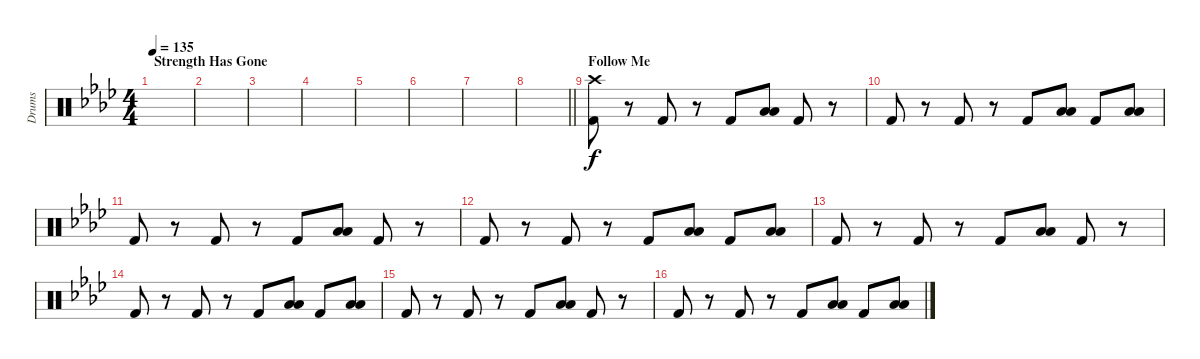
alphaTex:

\track ("Drums" "Drums") {instrument percussion}
\staff {score}
\articulation defaults
\ts (4 4)
\section ("" "Strength Has Gone")
\tempo 135
\clef neutral
\ks ab
|
|
|
|
|
|
|
\barLineRight lightlight
|
\section ("" "Follow Me")
("Kick (hit) 2" "Crash high (hit)").8 r.8 "Kick (hit) 2".8 r.8 "Kick (hit) 2".8 ("Low Tom (hit)" "Low Floor Tom (hit)").8 "Kick (hit) 2".8 r.8 |
"Kick (hit) 2".8 r.8 "Kick (hit) 2".8 r.8 "Kick (hit) 2".8 ("Low Tom (hit)" "Low Floor Tom (hit)").8 "Kick (hit) 2".8 ("Low Tom (hit)" "Low Floor Tom (hit)").8 |
"Kick (hit) 2".8 r.8 "Kick (hit) 2".8 r.8 "Kick (hit) 2".8 ("Low Tom (hit)" "Low Floor Tom (hit)").8 "Kick (hit) 2".8 r.8 |
"Kick (hit) 2".8 r.8 "Kick (hit) 2".8 r.8 "Kick (hit) 2".8 ("Low Tom (hit)" "Low Floor Tom (hit)").8 "Kick (hit) 2".8 ("Low Tom (hit)" "Low Floor Tom (hit)").8 |
"Kick (hit) 2".8 r.8 "Kick (hit) 2".8 r.8 "Kick (hit) 2".8 ("Low Tom (hit)" "Low Floor Tom (hit)").8 "Kick (hit) 2".8 r.8 |
"Kick (hit) 2".8 r.8 "Kick (hit) 2".8 r.8 "Kick (hit) 2".8 ("Low Tom (hit)" "Low Floor Tom (hit)").8 "Kick (hit) 2".8 ("Low Tom (hit)" "Low Floor Tom (hit)").8 |
"Kick (hit) 2".8 r.8 "Kick (hit) 2".8 r.8 "Kick (hit) 2".8 ("Low Tom (hit)" "Low Floor Tom (hit)").8 "Kick (hit) 2".8 r.8 |
"Kick (hit) 2".8 r.8 "Kick (hit) 2".8 r.8 "Kick (hit) 2".8 ("Low Tom (hit)" "Low Floor Tom (hit)").8 "Kick (hit) 2".8 ("Low Tom (hit)" "Low Floor Tom (hit)").8
